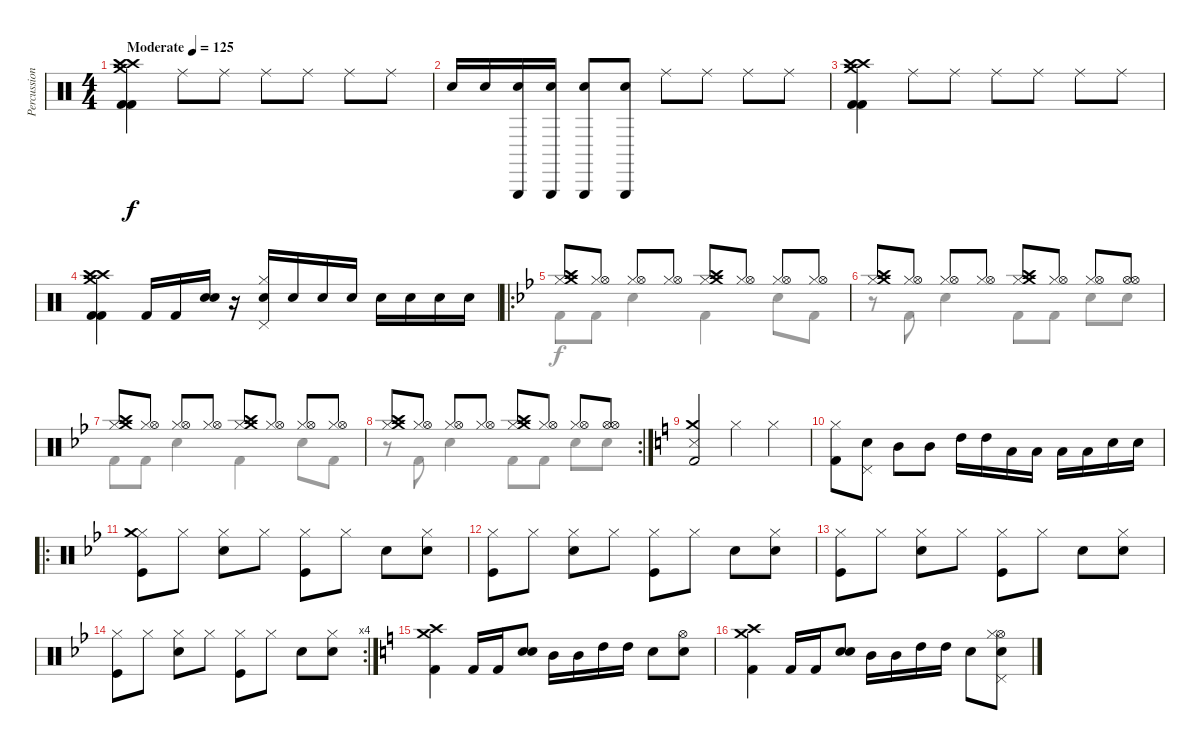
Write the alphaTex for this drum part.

\track ("Percussion" "Percussion") {instrument percussion}
\staff {score}
\articulation defaults
\voice
\ts (4 4)
\tempo (125 "Moderate")
\clef neutral
\ks c
("Kick (hit) 2" "Kick (hit) 2" "Crash high (hit)" "Crash high (hit)" "Crash medium (hit)").4{dy f} "Ride (middle)".8 "Ride (middle)".8 "Ride (middle)".8 "Ride (middle)".8 "Ride (middle)".8 "Ride (middle)".8 |
"Metronome (bell)".16 "Metronome (bell)".16 ("Metronome (bell)" "Triangle (hit)").16 ("Metronome (bell)" "Triangle (hit)").16 ("Metronome (bell)" "Triangle (hit)").8 ("Metronome (bell)" "Triangle (hit)").8 "Ride (middle)".8 "Ride (middle)".8 "Ride (middle)".8 "Ride (middle)".8 |
("Kick (hit) 2" "Kick (hit) 2" "Crash high (hit)" "Crash high (hit)" "Crash medium (hit)").4 "Ride (middle)".8 "Ride (middle)".8 "Ride (middle)".8 "Ride (middle)".8 "Ride (middle)".8 "Ride (middle)".8 |
("Kick (hit) 2" "Kick (hit) 2" "Crash high (hit)" "Crash high (hit)" "Crash medium (hit)").4 "Kick (hit) 2".16 "Kick (hit) 2".16 ("Electric Snare (hit)" "Snare (hit) 2").16 r.16 ("Hi-Hat (closed)" "Pedal Hi-Hat (hit)" "Snare (hit) 2").16 "Snare (hit) 2".16 "Electric Snare (hit)".16 "Electric Snare (hit)".16 "Snare (hit) 2".16 "Snare (hit) 2".16 "Electric Snare (hit)".16 "Electric Snare (hit)".16 |
\ro
\ks bb
("Hi-Hat (closed)" "Crash high (hit)" "Crash medium (hit)").8 ("Hi-Hat (closed)" "Hi-Hat (open)").8 ("Hi-Hat (closed)" "Hi-Hat (open)").8 ("Hi-Hat (closed)" "Hi-Hat (open)").8 ("Hi-Hat (closed)" "Crash high (hit)" "Crash medium (hit)").8 ("Hi-Hat (closed)" "Hi-Hat (open)").8 ("Hi-Hat (closed)" "Hi-Hat (open)").8 ("Hi-Hat (closed)" "Hi-Hat (open)").8 |
("Hi-Hat (closed)" "Crash high (hit)" "Crash medium (hit)").8 ("Hi-Hat (closed)" "Hi-Hat (open)").8 ("Hi-Hat (closed)" "Hi-Hat (open)").8 ("Hi-Hat (closed)" "Hi-Hat (open)").8 ("Hi-Hat (closed)" "Crash high (hit)" "Crash medium (hit)").8 ("Hi-Hat (closed)" "Hi-Hat (open)").8 ("Hi-Hat (closed)" "Hi-Hat (open)").8 ("Hi-Hat (open)" "Hi-Hat (open)").8 |
("Hi-Hat (closed)" "Crash high (hit)" "Crash medium (hit)").8 ("Hi-Hat (closed)" "Hi-Hat (open)").8 ("Hi-Hat (closed)" "Hi-Hat (open)").8 ("Hi-Hat (closed)" "Hi-Hat (open)").8 ("Hi-Hat (closed)" "Crash high (hit)" "Crash medium (hit)").8 ("Hi-Hat (closed)" "Hi-Hat (open)").8 ("Hi-Hat (closed)" "Hi-Hat (open)").8 ("Hi-Hat (closed)" "Hi-Hat (open)").8 |
\rc 2
("Hi-Hat (closed)" "Crash high (hit)" "Crash medium (hit)").8 ("Hi-Hat (closed)" "Hi-Hat (open)").8 ("Hi-Hat (closed)" "Hi-Hat (open)").8 ("Hi-Hat (closed)" "Hi-Hat (open)").8 ("Hi-Hat (closed)" "Crash high (hit)" "Crash medium (hit)").8 ("Hi-Hat (closed)" "Hi-Hat (open)").8 ("Hi-Hat (closed)" "Hi-Hat (open)").8 ("Hi-Hat (open)" "Hi-Hat (open)").8 |
\ks c
("Kick (hit) 2" "Snare (side stick) 3" "Crash medium (hit)").2 "Hi-Hat (closed)".4 "Hi-Hat (closed)".4 |
("Kick (hit) 2" "Hi-Hat (closed)").8 ("Snare (hit) 2" "Pedal Hi-Hat (hit)").8 "Mid Tom (hit)".8 "Mid Tom (hit)".8 "High Tom (hit)".16 "High Tom (hit)".16 "Low Tom (hit)".16 "Low Tom (hit)".16 "Low Floor Tom (hit)".16 "Low Floor Tom (hit)".16 "Electric Snare (hit)".16 "Electric Snare (hit)".16 |
\ro
\ks bb
("Hi-Hat (closed)" "Kick (hit)" "Crash medium (hit)").8 "Hi-Hat (closed)".8 ("Hi-Hat (closed)" "Snare (hit) 2").8 "Hi-Hat (closed)".8 ("Hi-Hat (closed)" "Kick (hit)").8 "Hi-Hat (closed)".8 "Snare (hit) 2".8 ("Hi-Hat (closed)" "Snare (hit) 2").8 |
("Hi-Hat (closed)" "Kick (hit)").8 "Hi-Hat (closed)".8 ("Hi-Hat (closed)" "Snare (hit) 2").8 "Hi-Hat (closed)".8 ("Hi-Hat (closed)" "Kick (hit)").8 "Hi-Hat (closed)".8 "Snare (hit) 2".8 ("Hi-Hat (closed)" "Snare (hit) 2").8 |
("Hi-Hat (closed)" "Kick (hit)").8 "Hi-Hat (closed)".8 ("Hi-Hat (closed)" "Snare (hit) 2").8 "Hi-Hat (closed)".8 ("Hi-Hat (closed)" "Kick (hit)").8 "Hi-Hat (closed)".8 "Snare (hit) 2".8 ("Hi-Hat (closed)" "Snare (hit) 2").8 |
\rc 4
("Hi-Hat (closed)" "Kick (hit)").8 "Hi-Hat (closed)".8 ("Hi-Hat (closed)" "Snare (hit) 2").8 "Hi-Hat (closed)".8 ("Hi-Hat (closed)" "Kick (hit)").8 "Hi-Hat (closed)".8 "Snare (hit) 2".8 ("Hi-Hat (closed)" "Snare (hit) 2").8 |
\ks c
("Kick (hit) 2" "Crash high (hit)" "Crash medium (hit)").4 "Kick (hit) 2".16 "Kick (hit) 2".16 ("Electric Snare (hit)" "Snare (hit) 2").8 "Mid Tom (hit)".16 "Mid Tom (hit)".16 "High Tom (hit)".16 "High Tom (hit)".16 "Electric Snare (hit)".8 ("Snare (hit) 2" "Hi-Hat (open)").8 |
("Kick (hit) 2" "Crash high (hit)" "Crash medium (hit)").4 "Kick (hit) 2".16 "Kick (hit) 2".16 ("Electric Snare (hit)" "Snare (hit) 2").8 "Mid Tom (hit)".16 "Mid Tom (hit)".16 "High Tom (hit)".16 "High Tom (hit)".16 "Electric Snare (hit)".8 ("Hi-Hat (open)" "Snare (hit) 2" "Pedal Hi-Hat (hit)" "Hi-Hat (closed)").8
\voice
\clef neutral
\ottava regular
\simile none
\ks c
|
|
|
|
\ks bb "Kick (hit) 2".8 "Kick (hit) 2".8 "Electric Snare (hit)".4 "Kick (hit) 2".4 "Electric Snare (hit)".8 "Kick (hit) 2".8
|
r.8 "Kick (hit) 2".8 "Electric Snare (hit)".4 "Kick (hit) 2".8 "Kick (hit) 2".8 "Electric Snare (hit)".8 "Electric Snare (hit)".8 |
"Kick (hit) 2".8 "Kick (hit) 2".8 "Electric Snare (hit)".4 "Kick (hit) 2".4 "Electric Snare (hit)".8 "Kick (hit) 2".8 |
r.8 "Kick (hit) 2".8 "Electric Snare (hit)".4 "Kick (hit) 2".8 "Kick (hit) 2".8 "Electric Snare (hit)".8 "Electric Snare (hit)".8 |
\ks c
|
|
\ks bb
|
|
|
|
\ks c
|
